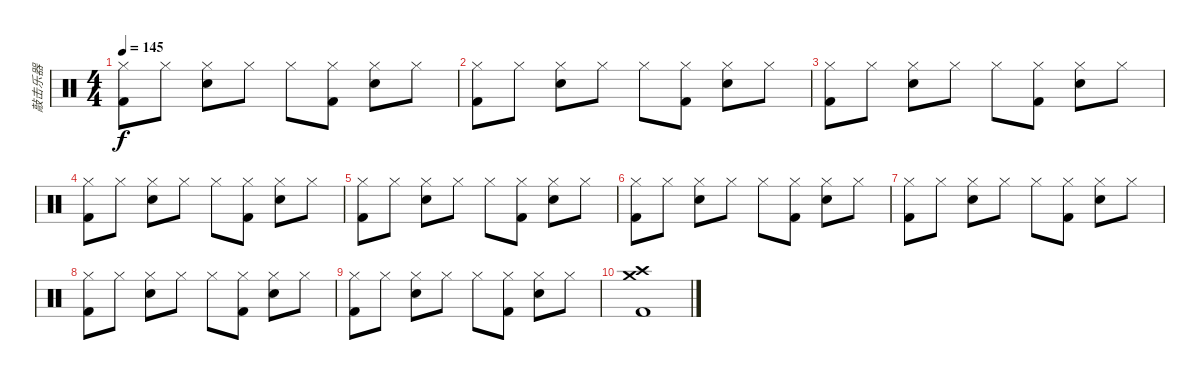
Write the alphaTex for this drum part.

\track ("敲击乐器" "敲击乐器") {instrument percussion}
\staff {score}
\articulation defaults
\ts (4 4)
\tempo 145
\clef neutral
\ks c
("Hi-Hat (closed)" "Kick (hit) 2").8{dy f} "Hi-Hat (closed)".8 ("Hi-Hat (closed)" "Snare (hit) 2").8 "Hi-Hat (closed)".8 "Hi-Hat (closed)".8 ("Hi-Hat (closed)" "Kick (hit) 2").8 ("Hi-Hat (closed)" "Snare (hit) 2").8 "Hi-Hat (closed)".8 |
("Hi-Hat (closed)" "Kick (hit) 2").8 "Hi-Hat (closed)".8 ("Hi-Hat (closed)" "Snare (hit) 2").8 "Hi-Hat (closed)".8 "Hi-Hat (closed)".8 ("Hi-Hat (closed)" "Kick (hit) 2").8 ("Hi-Hat (closed)" "Snare (hit) 2").8 "Hi-Hat (closed)".8 |
("Hi-Hat (closed)" "Kick (hit) 2").8 "Hi-Hat (closed)".8 ("Hi-Hat (closed)" "Snare (hit) 2").8 "Hi-Hat (closed)".8 "Hi-Hat (closed)".8 ("Hi-Hat (closed)" "Kick (hit) 2").8 ("Hi-Hat (closed)" "Snare (hit) 2").8 "Hi-Hat (closed)".8 |
("Hi-Hat (closed)" "Kick (hit) 2").8 "Hi-Hat (closed)".8 ("Hi-Hat (closed)" "Snare (hit) 2").8 "Hi-Hat (closed)".8 "Hi-Hat (closed)".8 ("Hi-Hat (closed)" "Kick (hit) 2").8 ("Hi-Hat (closed)" "Snare (hit) 2").8 "Hi-Hat (closed)".8 |
("Hi-Hat (closed)" "Kick (hit) 2").8 "Hi-Hat (closed)".8 ("Hi-Hat (closed)" "Snare (hit) 2").8 "Hi-Hat (closed)".8 "Hi-Hat (closed)".8 ("Hi-Hat (closed)" "Kick (hit) 2").8 ("Hi-Hat (closed)" "Snare (hit) 2").8 "Hi-Hat (closed)".8 |
("Hi-Hat (closed)" "Kick (hit) 2").8 "Hi-Hat (closed)".8 ("Hi-Hat (closed)" "Snare (hit) 2").8 "Hi-Hat (closed)".8 "Hi-Hat (closed)".8 ("Hi-Hat (closed)" "Kick (hit) 2").8 ("Hi-Hat (closed)" "Snare (hit) 2").8 "Hi-Hat (closed)".8 |
("Hi-Hat (closed)" "Kick (hit) 2").8 "Hi-Hat (closed)".8 ("Hi-Hat (closed)" "Snare (hit) 2").8 "Hi-Hat (closed)".8 "Hi-Hat (closed)".8 ("Hi-Hat (closed)" "Kick (hit) 2").8 ("Hi-Hat (closed)" "Snare (hit) 2").8 "Hi-Hat (closed)".8 |
("Hi-Hat (closed)" "Kick (hit) 2").8 "Hi-Hat (closed)".8 ("Hi-Hat (closed)" "Snare (hit) 2").8 "Hi-Hat (closed)".8 "Hi-Hat (closed)".8 ("Hi-Hat (closed)" "Kick (hit) 2").8 ("Hi-Hat (closed)" "Snare (hit) 2").8 "Hi-Hat (closed)".8 |
("Hi-Hat (closed)" "Kick (hit) 2").8 "Hi-Hat (closed)".8 ("Hi-Hat (closed)" "Snare (hit) 2").8 "Hi-Hat (closed)".8 "Hi-Hat (closed)".8 ("Hi-Hat (closed)" "Kick (hit) 2").8 ("Hi-Hat (closed)" "Snare (hit) 2").8 "Hi-Hat (closed)".8 |
("Crash high (hit)" "Crash medium (hit)" "Kick (hit) 2").1
